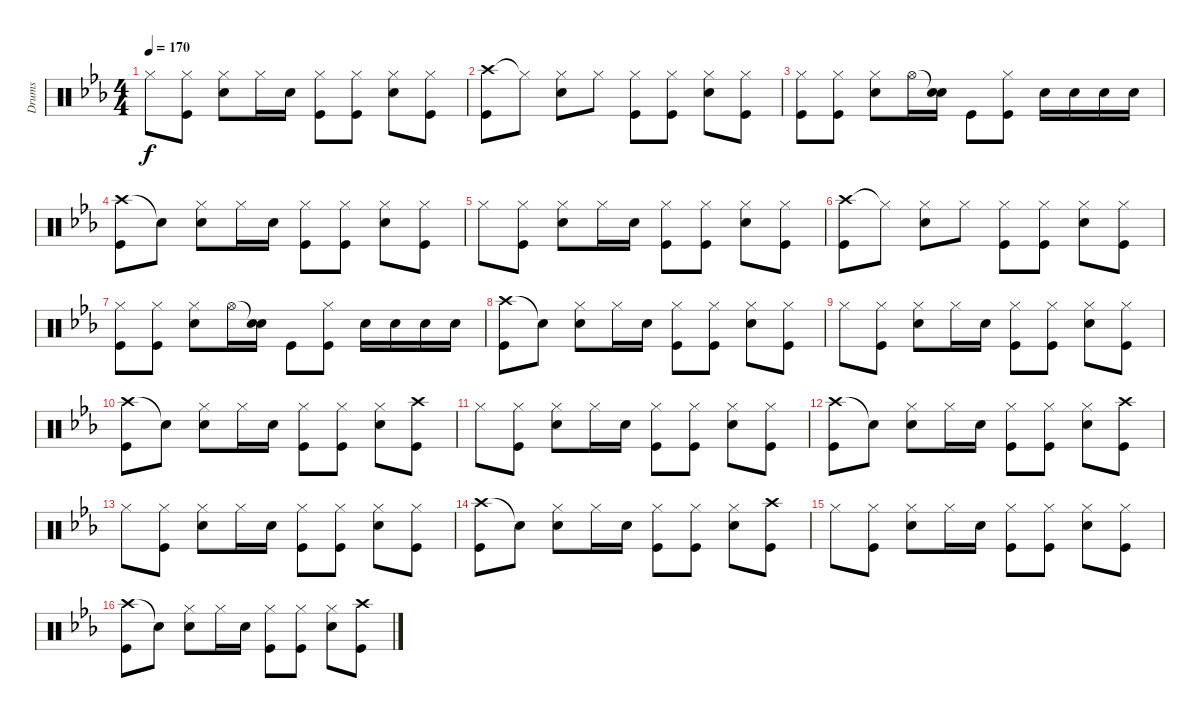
\track ("Drums" "Drums") {solo instrument percussion}
\staff {score}
\articulation defaults
\ts (4 4)
\tempo 170
\clef neutral
\ks eb "Hi-Hat (closed)".8{dy f}
("Hi-Hat (closed)" "Kick (hit)").8 ("Hi-Hat (closed)" "Snare (hit) 2").8 "Hi-Hat (closed)".16 "Snare (hit) 2".16 ("Hi-Hat (closed)" "Kick (hit)").8 ("Hi-Hat (closed)" "Kick (hit)").8 ("Hi-Hat (closed)" "Snare (hit) 2").8 ("Hi-Hat (closed)" "Kick (hit)").8 |
("Crash high (hit)" "Kick (hit)").8 "Hi-Hat (closed)"{t}.8 ("Hi-Hat (closed)" "Snare (hit) 2").8 "Hi-Hat (closed)".8 ("Hi-Hat (closed)" "Kick (hit)").8 ("Hi-Hat (closed)" "Kick (hit)").8 ("Hi-Hat (closed)" "Snare (hit) 2").8 ("Hi-Hat (closed)" "Kick (hit)").8 |
("Hi-Hat (closed)" "Kick (hit)").8 ("Hi-Hat (closed)" "Kick (hit)").8 ("Hi-Hat (closed)" "Snare (hit) 2").8 "Hi-Hat (open)".16 ("Snare (hit)"{t} "Snare (hit) 2").16 "Kick (hit)".8 ("Hi-Hat (closed)" "Kick (hit)").8 "Snare (hit) 2".16 "Snare (hit) 2".16 "Snare (hit) 2".16 "Snare (hit) 2".16 |
("Crash high (hit)" "Kick (hit)").8 "Snare (hit)"{t}.8 ("Hi-Hat (closed)" "Snare (hit) 2").8 "Hi-Hat (closed)".16 "Snare (hit) 2".16 ("Hi-Hat (closed)" "Kick (hit)").8 ("Hi-Hat (closed)" "Kick (hit)").8 ("Hi-Hat (closed)" "Snare (hit) 2").8 ("Hi-Hat (closed)" "Kick (hit)").8 |
"Hi-Hat (closed)".8 ("Hi-Hat (closed)" "Kick (hit)").8 ("Hi-Hat (closed)" "Snare (hit) 2").8 "Hi-Hat (closed)".16 "Snare (hit) 2".16 ("Hi-Hat (closed)" "Kick (hit)").8 ("Hi-Hat (closed)" "Kick (hit)").8 ("Hi-Hat (closed)" "Snare (hit) 2").8 ("Hi-Hat (closed)" "Kick (hit)").8 |
("Crash high (hit)" "Kick (hit)").8 "Hi-Hat (closed)"{t}.8 ("Hi-Hat (closed)" "Snare (hit) 2").8 "Hi-Hat (closed)".8 ("Hi-Hat (closed)" "Kick (hit)").8 ("Hi-Hat (closed)" "Kick (hit)").8 ("Hi-Hat (closed)" "Snare (hit) 2").8 ("Hi-Hat (closed)" "Kick (hit)").8 |
("Hi-Hat (closed)" "Kick (hit)").8 ("Hi-Hat (closed)" "Kick (hit)").8 ("Hi-Hat (closed)" "Snare (hit) 2").8 "Hi-Hat (open)".16 ("Snare (hit)"{t} "Snare (hit) 2").16 "Kick (hit)".8 ("Hi-Hat (closed)" "Kick (hit)").8 "Snare (hit) 2".16 "Snare (hit) 2".16 "Snare (hit) 2".16 "Snare (hit) 2".16 |
("Crash high (hit)" "Kick (hit)").8 "Snare (hit)"{t}.8 ("Hi-Hat (closed)" "Snare (hit) 2").8 "Hi-Hat (closed)".16 "Snare (hit) 2".16 ("Hi-Hat (closed)" "Kick (hit)").8 ("Hi-Hat (closed)" "Kick (hit)").8 ("Hi-Hat (closed)" "Snare (hit) 2").8 ("Hi-Hat (closed)" "Kick (hit)").8 |
"Hi-Hat (closed)".8 ("Hi-Hat (closed)" "Kick (hit)").8 ("Hi-Hat (closed)" "Snare (hit) 2").8 "Hi-Hat (closed)".16 "Snare (hit) 2".16 ("Hi-Hat (closed)" "Kick (hit)").8 ("Hi-Hat (closed)" "Kick (hit)").8 ("Hi-Hat (closed)" "Snare (hit) 2").8 ("Hi-Hat (closed)" "Kick (hit)").8 |
("Crash high (hit)" "Kick (hit)").8 "Snare (hit)"{t}.8 ("Hi-Hat (closed)" "Snare (hit) 2").8 "Hi-Hat (closed)".16 "Snare (hit) 2".16 ("Hi-Hat (closed)" "Kick (hit)").8 ("Hi-Hat (closed)" "Kick (hit)").8 ("Hi-Hat (closed)" "Snare (hit) 2").8 ("Crash high (hit)" "Kick (hit)").8 |
"Hi-Hat (closed)".8 ("Hi-Hat (closed)" "Kick (hit)").8 ("Hi-Hat (closed)" "Snare (hit) 2").8 "Hi-Hat (closed)".16 "Snare (hit) 2".16 ("Hi-Hat (closed)" "Kick (hit)").8 ("Hi-Hat (closed)" "Kick (hit)").8 ("Hi-Hat (closed)" "Snare (hit) 2").8 ("Hi-Hat (closed)" "Kick (hit)").8 |
("Crash high (hit)" "Kick (hit)").8 "Snare (hit)"{t}.8 ("Hi-Hat (closed)" "Snare (hit) 2").8 "Hi-Hat (closed)".16 "Snare (hit) 2".16 ("Hi-Hat (closed)" "Kick (hit)").8 ("Hi-Hat (closed)" "Kick (hit)").8 ("Hi-Hat (closed)" "Snare (hit) 2").8 ("Crash high (hit)" "Kick (hit)").8 |
"Hi-Hat (closed)".8 ("Hi-Hat (closed)" "Kick (hit)").8 ("Hi-Hat (closed)" "Snare (hit) 2").8 "Hi-Hat (closed)".16 "Snare (hit) 2".16 ("Hi-Hat (closed)" "Kick (hit)").8 ("Hi-Hat (closed)" "Kick (hit)").8 ("Hi-Hat (closed)" "Snare (hit) 2").8 ("Hi-Hat (closed)" "Kick (hit)").8 |
("Crash high (hit)" "Kick (hit)").8 "Snare (hit)"{t}.8 ("Hi-Hat (closed)" "Snare (hit) 2").8 "Hi-Hat (closed)".16 "Snare (hit) 2".16 ("Hi-Hat (closed)" "Kick (hit)").8 ("Hi-Hat (closed)" "Kick (hit)").8 ("Hi-Hat (closed)" "Snare (hit) 2").8 ("Crash high (hit)" "Kick (hit)").8 |
"Hi-Hat (closed)".8 ("Hi-Hat (closed)" "Kick (hit)").8 ("Hi-Hat (closed)" "Snare (hit) 2").8 "Hi-Hat (closed)".16 "Snare (hit) 2".16 ("Hi-Hat (closed)" "Kick (hit)").8 ("Hi-Hat (closed)" "Kick (hit)").8 ("Hi-Hat (closed)" "Snare (hit) 2").8 ("Hi-Hat (closed)" "Kick (hit)").8 |
("Crash high (hit)" "Kick (hit)").8 "Snare (hit)"{t}.8 ("Hi-Hat (closed)" "Snare (hit) 2").8 "Hi-Hat (closed)".16 "Snare (hit) 2".16 ("Hi-Hat (closed)" "Kick (hit)").8 ("Hi-Hat (closed)" "Kick (hit)").8 ("Hi-Hat (closed)" "Snare (hit) 2").8 ("Crash high (hit)" "Kick (hit)").8
